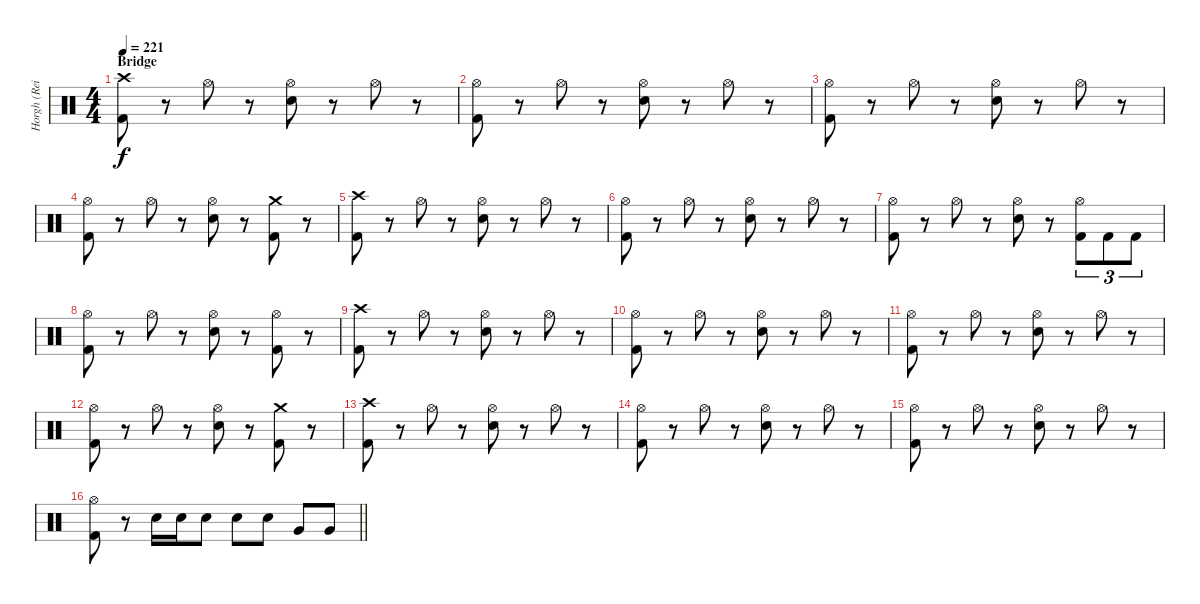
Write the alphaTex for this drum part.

\track ("Horgh (Reidar Horghagen)" "Horgh (Rei") {instrument percussion}
\staff {score}
\articulation defaults
\ts (4 4)
\section ("" "Bridge")
\tempo 221
\clef neutral
\ks c
("Crash high (hit)" "Kick (hit) 2").8{dy f} r.8 "Hi-Hat (open)".8 r.8 ("Hi-Hat (open)" "Snare (hit) 2").8 r.8 "Hi-Hat (open)".8 r.8 |
("Hi-Hat (open)" "Kick (hit) 2").8 r.8 "Hi-Hat (open)".8 r.8 ("Hi-Hat (open)" "Snare (hit) 2").8 r.8 "Hi-Hat (open)".8 r.8 |
("Hi-Hat (open)" "Kick (hit) 2").8 r.8 "Hi-Hat (open)".8 r.8 ("Hi-Hat (open)" "Snare (hit) 2").8 r.8 "Hi-Hat (open)".8 r.8 |
("Hi-Hat (open)" "Kick (hit) 2").8 r.8 "Hi-Hat (open)".8 r.8 ("Hi-Hat (open)" "Snare (hit) 2").8 r.8 ("Crash medium (hit)" "Kick (hit) 2").8 r.8 |
("Crash high (hit)" "Kick (hit) 2").8 r.8 "Hi-Hat (open)".8 r.8 ("Hi-Hat (open)" "Snare (hit) 2").8 r.8 "Hi-Hat (open)".8 r.8 |
("Hi-Hat (open)" "Kick (hit) 2").8 r.8 "Hi-Hat (open)".8 r.8 ("Hi-Hat (open)" "Snare (hit) 2").8 r.8 "Hi-Hat (open)".8 r.8 |
("Hi-Hat (open)" "Kick (hit) 2").8 r.8 "Hi-Hat (open)".8 r.8 ("Hi-Hat (open)" "Snare (hit) 2").8 r.8 ("Hi-Hat (open)" "Kick (hit) 2").8{tu (3 2)} "Kick (hit) 2".8{tu (3 2)} "Kick (hit) 2".8{tu (3 2)} |
("Hi-Hat (open)" "Kick (hit) 2").8 r.8 "Hi-Hat (open)".8 r.8 ("Hi-Hat (open)" "Snare (hit) 2").8 r.8 ("Hi-Hat (open)" "Kick (hit) 2").8 r.8 |
("Crash high (hit)" "Kick (hit) 2").8 r.8 "Hi-Hat (open)".8 r.8 ("Hi-Hat (open)" "Snare (hit) 2").8 r.8 "Hi-Hat (open)".8 r.8 |
("Hi-Hat (open)" "Kick (hit) 2").8 r.8 "Hi-Hat (open)".8 r.8 ("Hi-Hat (open)" "Snare (hit) 2").8 r.8 "Hi-Hat (open)".8 r.8 |
("Hi-Hat (open)" "Kick (hit) 2").8 r.8 "Hi-Hat (open)".8 r.8 ("Hi-Hat (open)" "Snare (hit) 2").8 r.8 "Hi-Hat (open)".8 r.8 |
("Hi-Hat (open)" "Kick (hit) 2").8 r.8 "Hi-Hat (open)".8 r.8 ("Hi-Hat (open)" "Snare (hit) 2").8 r.8 ("Crash medium (hit)" "Kick (hit) 2").8 r.8 |
("Crash high (hit)" "Kick (hit) 2").8 r.8 "Hi-Hat (open)".8 r.8 ("Hi-Hat (open)" "Snare (hit) 2").8 r.8 "Hi-Hat (open)".8 r.8 |
("Hi-Hat (open)" "Kick (hit) 2").8 r.8 "Hi-Hat (open)".8 r.8 ("Hi-Hat (open)" "Snare (hit) 2").8 r.8 "Hi-Hat (open)".8 r.8 |
("Hi-Hat (open)" "Kick (hit) 2").8 r.8 "Hi-Hat (open)".8 r.8 ("Hi-Hat (open)" "Snare (hit) 2").8 r.8 "Hi-Hat (open)".8 r.8 |
\barLineRight lightlight
("Hi-Hat (open)" "Kick (hit) 2").8 r.8 "Snare (hit) 2".16 "Snare (hit) 2".16 "Snare (hit) 2".8 "Snare (hit) 2".8 "Snare (hit) 2".8 "Very Low Tom (hit)".8 "Very Low Tom (hit)".8
